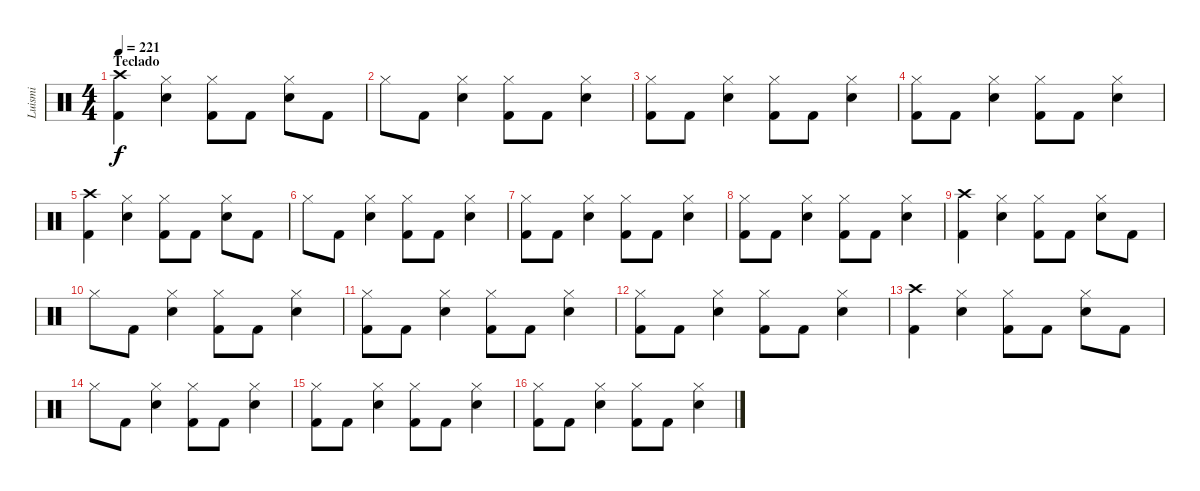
\track ("Luismi" "Luismi") {instrument percussion}
\staff {score}
\articulation defaults
\ts (4 4)
\section ("" "Teclado")
\tempo 221
\clef neutral
\ks c
("Crash high (hit)" "Kick (hit) 2").4{dy f} ("Hi-Hat (closed)" "Snare (hit) 2").4 ("Hi-Hat (closed)" "Kick (hit) 2").8 "Kick (hit) 2".8 ("Hi-Hat (closed)" "Snare (hit) 2").8 "Kick (hit) 2".8 |
"Hi-Hat (closed)".8 "Kick (hit) 2".8 ("Hi-Hat (closed)" "Snare (hit) 2").4 ("Hi-Hat (closed)" "Kick (hit) 2").8 "Kick (hit) 2".8 ("Hi-Hat (closed)" "Snare (hit) 2").4 |
("Hi-Hat (closed)" "Kick (hit) 2").8 "Kick (hit) 2".8 ("Hi-Hat (closed)" "Snare (hit) 2").4 ("Hi-Hat (closed)" "Kick (hit) 2").8 "Kick (hit) 2".8 ("Hi-Hat (closed)" "Snare (hit) 2").4 |
("Hi-Hat (closed)" "Kick (hit) 2").8 "Kick (hit) 2".8 ("Hi-Hat (closed)" "Snare (hit) 2").4 ("Hi-Hat (closed)" "Kick (hit) 2").8 "Kick (hit) 2".8 ("Hi-Hat (closed)" "Snare (hit) 2").4 |
("Crash high (hit)" "Kick (hit) 2").4 ("Hi-Hat (closed)" "Snare (hit) 2").4 ("Hi-Hat (closed)" "Kick (hit) 2").8 "Kick (hit) 2".8 ("Hi-Hat (closed)" "Snare (hit) 2").8 "Kick (hit) 2".8 |
"Hi-Hat (closed)".8 "Kick (hit) 2".8 ("Hi-Hat (closed)" "Snare (hit) 2").4 ("Hi-Hat (closed)" "Kick (hit) 2").8 "Kick (hit) 2".8 ("Hi-Hat (closed)" "Snare (hit) 2").4 |
("Hi-Hat (closed)" "Kick (hit) 2").8 "Kick (hit) 2".8 ("Hi-Hat (closed)" "Snare (hit) 2").4 ("Hi-Hat (closed)" "Kick (hit) 2").8 "Kick (hit) 2".8 ("Hi-Hat (closed)" "Snare (hit) 2").4 |
("Hi-Hat (closed)" "Kick (hit) 2").8 "Kick (hit) 2".8 ("Hi-Hat (closed)" "Snare (hit) 2").4 ("Hi-Hat (closed)" "Kick (hit) 2").8 "Kick (hit) 2".8 ("Hi-Hat (closed)" "Snare (hit) 2").4 |
("Crash high (hit)" "Kick (hit) 2").4 ("Hi-Hat (closed)" "Snare (hit) 2").4 ("Hi-Hat (closed)" "Kick (hit) 2").8 "Kick (hit) 2".8 ("Hi-Hat (closed)" "Snare (hit) 2").8 "Kick (hit) 2".8 |
"Hi-Hat (closed)".8 "Kick (hit) 2".8 ("Hi-Hat (closed)" "Snare (hit) 2").4 ("Hi-Hat (closed)" "Kick (hit) 2").8 "Kick (hit) 2".8 ("Hi-Hat (closed)" "Snare (hit) 2").4 |
("Hi-Hat (closed)" "Kick (hit) 2").8 "Kick (hit) 2".8 ("Hi-Hat (closed)" "Snare (hit) 2").4 ("Hi-Hat (closed)" "Kick (hit) 2").8 "Kick (hit) 2".8 ("Hi-Hat (closed)" "Snare (hit) 2").4 |
("Hi-Hat (closed)" "Kick (hit) 2").8 "Kick (hit) 2".8 ("Hi-Hat (closed)" "Snare (hit) 2").4 ("Hi-Hat (closed)" "Kick (hit) 2").8 "Kick (hit) 2".8 ("Hi-Hat (closed)" "Snare (hit) 2").4 |
("Crash high (hit)" "Kick (hit) 2").4 ("Hi-Hat (closed)" "Snare (hit) 2").4 ("Hi-Hat (closed)" "Kick (hit) 2").8 "Kick (hit) 2".8 ("Hi-Hat (closed)" "Snare (hit) 2").8 "Kick (hit) 2".8 |
"Hi-Hat (closed)".8 "Kick (hit) 2".8 ("Hi-Hat (closed)" "Snare (hit) 2").4 ("Hi-Hat (closed)" "Kick (hit) 2").8 "Kick (hit) 2".8 ("Hi-Hat (closed)" "Snare (hit) 2").4 |
("Hi-Hat (closed)" "Kick (hit) 2").8 "Kick (hit) 2".8 ("Hi-Hat (closed)" "Snare (hit) 2").4 ("Hi-Hat (closed)" "Kick (hit) 2").8 "Kick (hit) 2".8 ("Hi-Hat (closed)" "Snare (hit) 2").4 |
("Hi-Hat (closed)" "Kick (hit) 2").8 "Kick (hit) 2".8 ("Hi-Hat (closed)" "Snare (hit) 2").4 ("Hi-Hat (closed)" "Kick (hit) 2").8 "Kick (hit) 2".8 ("Hi-Hat (closed)" "Snare (hit) 2").4
